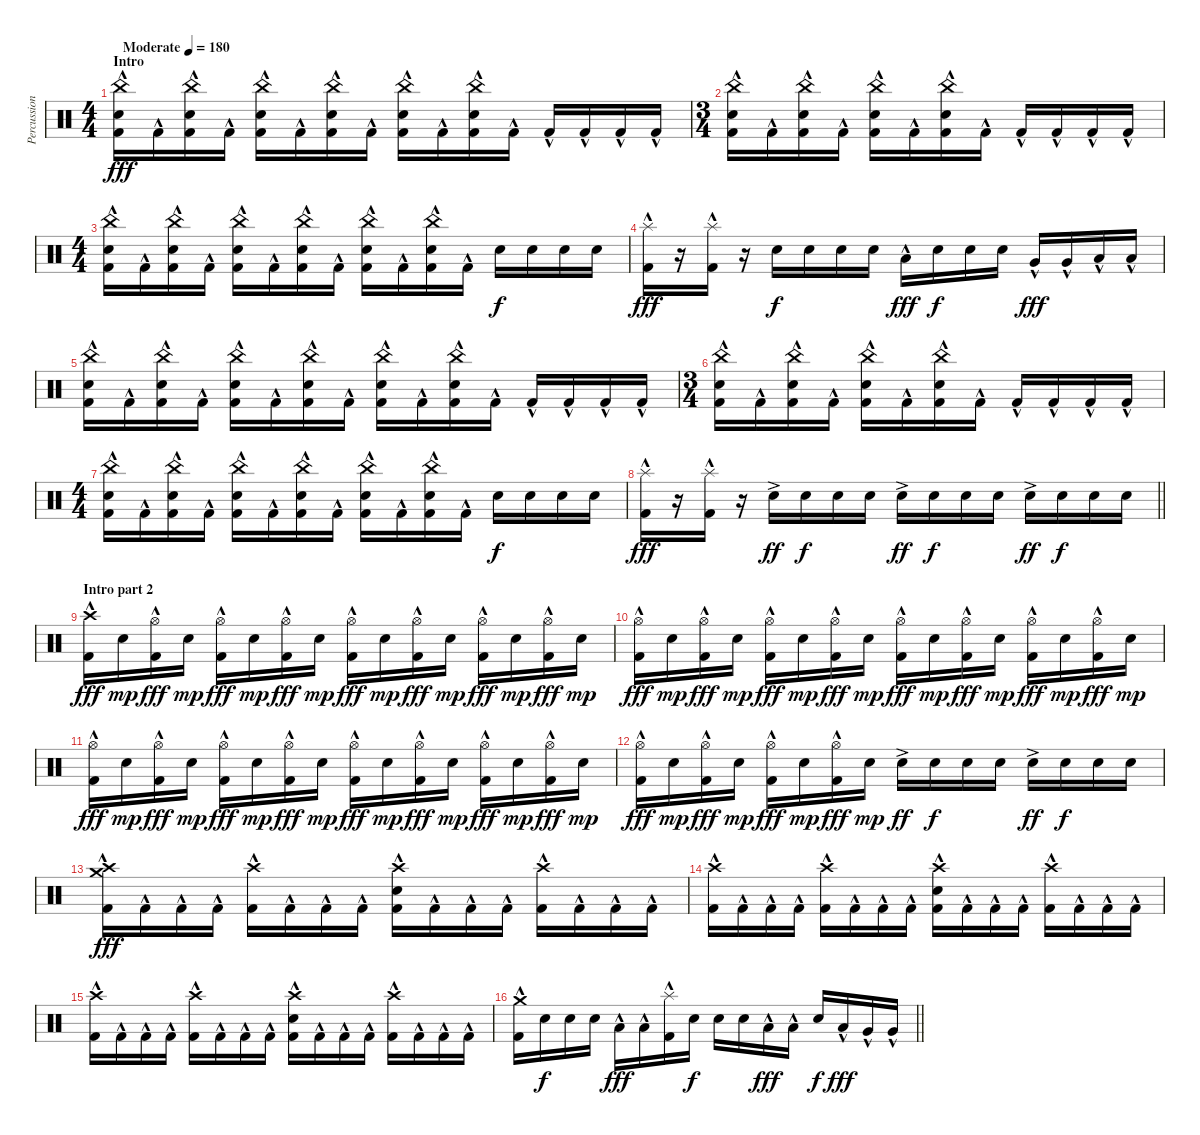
\track ("Percussion" "Percussion") {instrument percussion}
\staff {score}
\articulation defaults
\ts (4 4)
\section ("" "Intro")
\tempo (180 "Moderate")
\clef neutral
\ks c
("China (hit)" "Snare (hit) 2" "Kick (hit) 2"{hac}).16{dy fff} "Kick (hit) 2"{hac}.16 ("China (hit)" "Snare (hit) 2" "Kick (hit) 2"{hac}).16 "Kick (hit) 2"{hac}.16 ("China (hit)" "Snare (hit) 2" "Kick (hit) 2"{hac}).16 "Kick (hit) 2"{hac}.16 ("China (hit)" "Snare (hit) 2" "Kick (hit) 2"{hac}).16 "Kick (hit) 2"{hac}.16 ("China (hit)" "Snare (hit) 2" "Kick (hit) 2"{hac}).16 "Kick (hit) 2"{hac}.16 ("China (hit)" "Snare (hit) 2" "Kick (hit) 2"{hac}).16 "Kick (hit) 2"{hac}.16 "Kick (hit) 2"{hac}.16 "Kick (hit) 2"{hac}.16 "Kick (hit) 2"{hac}.16 "Kick (hit) 2"{hac}.16 |
\ts (3 4)
("China (hit)" "Snare (hit) 2" "Kick (hit) 2"{hac}).16 "Kick (hit) 2"{hac}.16 ("China (hit)" "Snare (hit) 2" "Kick (hit) 2"{hac}).16 "Kick (hit) 2"{hac}.16 ("China (hit)" "Snare (hit) 2" "Kick (hit) 2"{hac}).16 "Kick (hit) 2"{hac}.16 ("China (hit)" "Snare (hit) 2" "Kick (hit) 2"{hac}).16 "Kick (hit) 2"{hac}.16 "Kick (hit) 2"{hac}.16 "Kick (hit) 2"{hac}.16 "Kick (hit) 2"{hac}.16 "Kick (hit) 2"{hac}.16 |
\ts (4 4)
("China (hit)" "Snare (hit) 2" "Kick (hit) 2"{hac}).16 "Kick (hit) 2"{hac}.16 ("China (hit)" "Snare (hit) 2" "Kick (hit) 2"{hac}).16 "Kick (hit) 2"{hac}.16 ("China (hit)" "Snare (hit) 2" "Kick (hit) 2"{hac}).16 "Kick (hit) 2"{hac}.16 ("China (hit)" "Snare (hit) 2" "Kick (hit) 2"{hac}).16 "Kick (hit) 2"{hac}.16 ("China (hit)" "Snare (hit) 2" "Kick (hit) 2"{hac}).16 "Kick (hit) 2"{hac}.16 ("China (hit)" "Snare (hit) 2" "Kick (hit) 2"{hac}).16 "Kick (hit) 2"{hac}.16 "Snare (hit) 2".16{dy f} "Snare (hit) 2".16 "Snare (hit) 2".16 "Snare (hit) 2".16 |
("Splash (hit)" "Kick (hit) 2"{hac}).16{dy fff} r.16 ("Splash (hit)" "Kick (hit) 2"{hac}).16 r.16 "Snare (hit) 2".16{dy f} "Snare (hit) 2".16 "Snare (hit) 2".16 "Snare (hit) 2".16 "Low Tom (hit)"{hac}.16{dy fff} "Snare (hit) 2".16{dy f} "Snare (hit) 2".16 "Snare (hit) 2".16 "Very Low Tom (hit)"{hac}.16{dy fff} "Very Low Tom (hit)"{hac}.16 "Low Floor Tom (hit)"{hac}.16 "Low Floor Tom (hit)"{hac}.16 |
("China (hit)" "Snare (hit) 2" "Kick (hit) 2"{hac}).16 "Kick (hit) 2"{hac}.16 ("China (hit)" "Snare (hit) 2" "Kick (hit) 2"{hac}).16 "Kick (hit) 2"{hac}.16 ("China (hit)" "Snare (hit) 2" "Kick (hit) 2"{hac}).16 "Kick (hit) 2"{hac}.16 ("China (hit)" "Snare (hit) 2" "Kick (hit) 2"{hac}).16 "Kick (hit) 2"{hac}.16 ("China (hit)" "Snare (hit) 2" "Kick (hit) 2"{hac}).16 "Kick (hit) 2"{hac}.16 ("China (hit)" "Snare (hit) 2" "Kick (hit) 2"{hac}).16 "Kick (hit) 2"{hac}.16 "Kick (hit) 2"{hac}.16 "Kick (hit) 2"{hac}.16 "Kick (hit) 2"{hac}.16 "Kick (hit) 2"{hac}.16 |
\ts (3 4)
("China (hit)" "Snare (hit) 2" "Kick (hit) 2"{hac}).16 "Kick (hit) 2"{hac}.16 ("China (hit)" "Snare (hit) 2" "Kick (hit) 2"{hac}).16 "Kick (hit) 2"{hac}.16 ("China (hit)" "Snare (hit) 2" "Kick (hit) 2"{hac}).16 "Kick (hit) 2"{hac}.16 ("China (hit)" "Snare (hit) 2" "Kick (hit) 2"{hac}).16 "Kick (hit) 2"{hac}.16 "Kick (hit) 2"{hac}.16 "Kick (hit) 2"{hac}.16 "Kick (hit) 2"{hac}.16 "Kick (hit) 2"{hac}.16 |
\ts (4 4)
("China (hit)" "Snare (hit) 2" "Kick (hit) 2"{hac}).16 "Kick (hit) 2"{hac}.16 ("China (hit)" "Snare (hit) 2" "Kick (hit) 2"{hac}).16 "Kick (hit) 2"{hac}.16 ("China (hit)" "Snare (hit) 2" "Kick (hit) 2"{hac}).16 "Kick (hit) 2"{hac}.16 ("China (hit)" "Snare (hit) 2" "Kick (hit) 2"{hac}).16 "Kick (hit) 2"{hac}.16 ("China (hit)" "Snare (hit) 2" "Kick (hit) 2"{hac}).16 "Kick (hit) 2"{hac}.16 ("China (hit)" "Snare (hit) 2" "Kick (hit) 2"{hac}).16 "Kick (hit) 2"{hac}.16 "Snare (hit) 2".16{dy f} "Snare (hit) 2".16 "Snare (hit) 2".16 "Snare (hit) 2".16 |
\barLineRight lightlight
("Splash (hit)" "Kick (hit) 2"{hac}).16{dy fff} r.16 ("Splash (hit)" "Kick (hit) 2"{hac}).16 r.16 "Snare (hit) 2"{ac}.16{dy ff} "Snare (hit) 2".16{dy f} "Snare (hit) 2".16 "Snare (hit) 2".16 "Snare (hit) 2"{ac}.16{dy ff} "Snare (hit) 2".16{dy f} "Snare (hit) 2".16 "Snare (hit) 2".16 "Snare (hit) 2"{ac}.16{dy ff} "Snare (hit) 2".16{dy f} "Snare (hit) 2".16 "Snare (hit) 2".16 |
\section ("" "Intro part 2")
("Crash high (hit)" "Kick (hit) 2"{hac}).16{dy fff} "Snare (hit) 2".16{dy mp} ("Hi-Hat (open)" "Kick (hit) 2"{hac}).16{dy fff} "Snare (hit) 2".16{dy mp} ("Hi-Hat (open)" "Kick (hit) 2"{hac}).16{dy fff} "Snare (hit) 2".16{dy mp} ("Hi-Hat (open)" "Kick (hit) 2"{hac}).16{dy fff} "Snare (hit) 2".16{dy mp} ("Hi-Hat (open)" "Kick (hit) 2"{hac}).16{dy fff} "Snare (hit) 2".16{dy mp} ("Hi-Hat (open)" "Kick (hit) 2"{hac}).16{dy fff} "Snare (hit) 2".16{dy mp} ("Hi-Hat (open)" "Kick (hit) 2"{hac}).16{dy fff} "Snare (hit) 2".16{dy mp} ("Hi-Hat (open)" "Kick (hit) 2"{hac}).16{dy fff} "Snare (hit) 2".16{dy mp} |
("Hi-Hat (open)" "Kick (hit) 2"{hac}).16{dy fff} "Snare (hit) 2".16{dy mp} ("Hi-Hat (open)" "Kick (hit) 2"{hac}).16{dy fff} "Snare (hit) 2".16{dy mp} ("Hi-Hat (open)" "Kick (hit) 2"{hac}).16{dy fff} "Snare (hit) 2".16{dy mp} ("Hi-Hat (open)" "Kick (hit) 2"{hac}).16{dy fff} "Snare (hit) 2".16{dy mp} ("Hi-Hat (open)" "Kick (hit) 2"{hac}).16{dy fff} "Snare (hit) 2".16{dy mp} ("Hi-Hat (open)" "Kick (hit) 2"{hac}).16{dy fff} "Snare (hit) 2".16{dy mp} ("Hi-Hat (open)" "Kick (hit) 2"{hac}).16{dy fff} "Snare (hit) 2".16{dy mp} ("Hi-Hat (open)" "Kick (hit) 2"{hac}).16{dy fff} "Snare (hit) 2".16{dy mp} |
("Hi-Hat (open)" "Kick (hit) 2"{hac}).16{dy fff} "Snare (hit) 2".16{dy mp} ("Hi-Hat (open)" "Kick (hit) 2"{hac}).16{dy fff} "Snare (hit) 2".16{dy mp} ("Hi-Hat (open)" "Kick (hit) 2"{hac}).16{dy fff} "Snare (hit) 2".16{dy mp} ("Hi-Hat (open)" "Kick (hit) 2"{hac}).16{dy fff} "Snare (hit) 2".16{dy mp} ("Hi-Hat (open)" "Kick (hit) 2"{hac}).16{dy fff} "Snare (hit) 2".16{dy mp} ("Hi-Hat (open)" "Kick (hit) 2"{hac}).16{dy fff} "Snare (hit) 2".16{dy mp} ("Hi-Hat (open)" "Kick (hit) 2"{hac}).16{dy fff} "Snare (hit) 2".16{dy mp} ("Hi-Hat (open)" "Kick (hit) 2"{hac}).16{dy fff} "Snare (hit) 2".16{dy mp} |
("Hi-Hat (open)" "Kick (hit) 2"{hac}).16{dy fff} "Snare (hit) 2".16{dy mp} ("Hi-Hat (open)" "Kick (hit) 2"{hac}).16{dy fff} "Snare (hit) 2".16{dy mp} ("Hi-Hat (open)" "Kick (hit) 2"{hac}).16{dy fff} "Snare (hit) 2".16{dy mp} ("Hi-Hat (open)" "Kick (hit) 2"{hac}).16{dy fff} "Snare (hit) 2".16{dy mp} "Snare (hit) 2"{ac}.16{dy ff} "Snare (hit) 2".16{dy f} "Snare (hit) 2".16 "Snare (hit) 2".16 "Snare (hit) 2"{ac}.16{dy ff} "Snare (hit) 2".16{dy f} "Snare (hit) 2".16 "Snare (hit) 2".16 |
("Crash high (hit)" "Crash medium (hit)" "Kick (hit) 2"{hac}).16{dy fff} "Kick (hit) 2"{hac}.16 "Kick (hit) 2"{hac}.16 "Kick (hit) 2"{hac}.16 ("Crash high (hit)" "Kick (hit) 2"{hac}).16 "Kick (hit) 2"{hac}.16 "Kick (hit) 2"{hac}.16 "Kick (hit) 2"{hac}.16 ("Crash high (hit)" "Snare (hit) 2" "Kick (hit) 2"{hac}).16 "Kick (hit) 2"{hac}.16 "Kick (hit) 2"{hac}.16 "Kick (hit) 2"{hac}.16 ("Crash high (hit)" "Kick (hit) 2"{hac}).16 "Kick (hit) 2"{hac}.16 "Kick (hit) 2"{hac}.16 "Kick (hit) 2"{hac}.16 |
("Crash high (hit)" "Kick (hit) 2"{hac}).16 "Kick (hit) 2"{hac}.16 "Kick (hit) 2"{hac}.16 "Kick (hit) 2"{hac}.16 ("Crash high (hit)" "Kick (hit) 2"{hac}).16 "Kick (hit) 2"{hac}.16 "Kick (hit) 2"{hac}.16 "Kick (hit) 2"{hac}.16 ("Crash high (hit)" "Snare (hit) 2" "Kick (hit) 2"{hac}).16 "Kick (hit) 2"{hac}.16 "Kick (hit) 2"{hac}.16 "Kick (hit) 2"{hac}.16 ("Crash high (hit)" "Kick (hit) 2"{hac}).16 "Kick (hit) 2"{hac}.16 "Kick (hit) 2"{hac}.16 "Kick (hit) 2"{hac}.16 |
("Crash high (hit)" "Kick (hit) 2"{hac}).16 "Kick (hit) 2"{hac}.16 "Kick (hit) 2"{hac}.16 "Kick (hit) 2"{hac}.16 ("Crash high (hit)" "Kick (hit) 2"{hac}).16 "Kick (hit) 2"{hac}.16 "Kick (hit) 2"{hac}.16 "Kick (hit) 2"{hac}.16 ("Crash high (hit)" "Snare (hit) 2" "Kick (hit) 2"{hac}).16 "Kick (hit) 2"{hac}.16 "Kick (hit) 2"{hac}.16 "Kick (hit) 2"{hac}.16 ("Crash high (hit)" "Kick (hit) 2"{hac}).16 "Kick (hit) 2"{hac}.16 "Kick (hit) 2"{hac}.16 "Kick (hit) 2"{hac}.16 |
\barLineRight lightlight
("Crash medium (hit)" "Kick (hit) 2"{hac}).16 "Snare (hit) 2".16{dy f} "Snare (hit) 2".16 "Snare (hit) 2".16 "Low Tom (hit)"{hac}.16{dy fff} "Low Tom (hit)"{hac}.16 ("Splash (hit)" "Kick (hit) 2"{hac}).16 "Snare (hit) 2".16{dy f} "Snare (hit) 2".16 "Snare (hit) 2".16 "Low Tom (hit)"{hac}.16{dy fff} "Low Tom (hit)"{hac}.16 "Snare (hit) 2".16{dy f} "Low Tom (hit)"{hac}.16{dy fff} "Very Low Tom (hit)"{hac}.16 "Very Low Tom (hit)"{hac}.16
